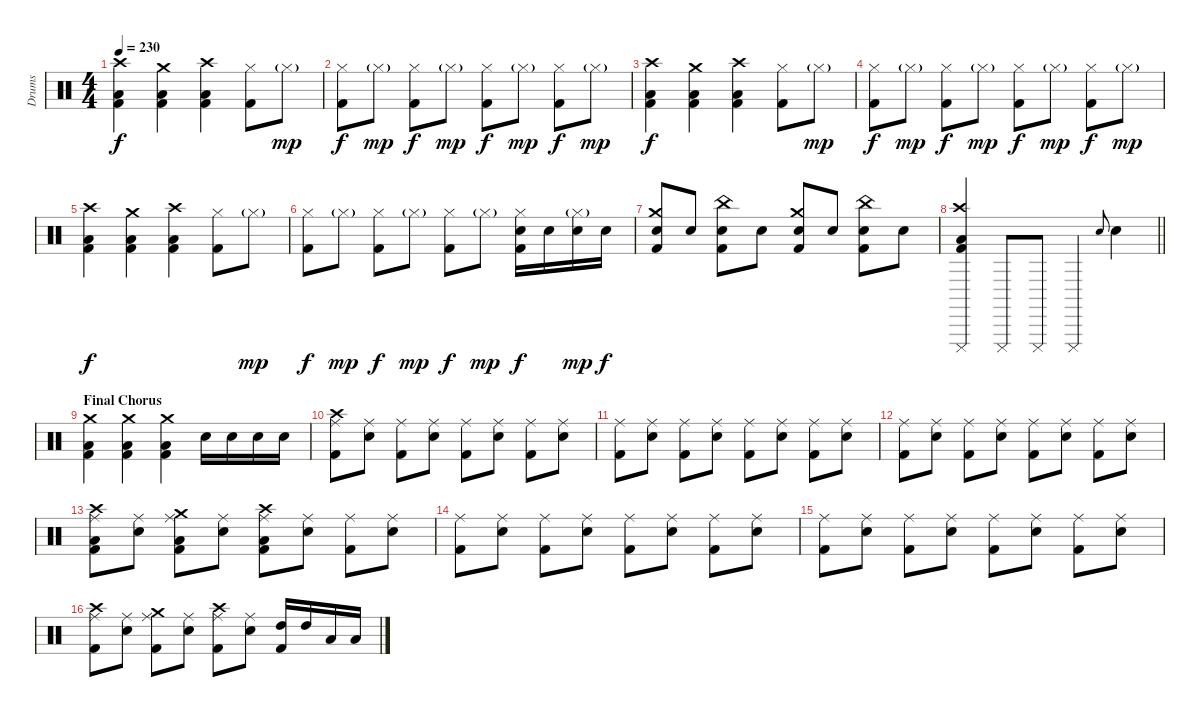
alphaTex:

\track ("Drums" "Drums") {instrument percussion}
\staff {score}
\articulation defaults
\ts (4 4)
\tempo 230
\clef neutral
\ks c
("Crash high (hit)" "Low Floor Tom (hit)" "Kick (hit) 2").4{dy f} ("Crash medium (hit)" "Low Floor Tom (hit)" "Kick (hit) 2").4 ("Crash high (hit)" "Low Floor Tom (hit)" "Kick (hit) 2").4 ("Hi-Hat (closed)" "Kick (hit) 2").8 "Hi-Hat (closed)"{g}.8{dy mp} |
("Hi-Hat (closed)" "Kick (hit) 2").8{dy f} "Hi-Hat (closed)"{g}.8{dy mp} ("Hi-Hat (closed)" "Kick (hit) 2").8{dy f} "Hi-Hat (closed)"{g}.8{dy mp} ("Hi-Hat (closed)" "Kick (hit) 2").8{dy f} "Hi-Hat (closed)"{g}.8{dy mp} ("Hi-Hat (closed)" "Kick (hit) 2").8{dy f} "Hi-Hat (closed)"{g}.8{dy mp} |
("Crash high (hit)" "Low Floor Tom (hit)" "Kick (hit) 2").4{dy f} ("Crash medium (hit)" "Low Floor Tom (hit)" "Kick (hit) 2").4 ("Crash high (hit)" "Low Floor Tom (hit)" "Kick (hit) 2").4 ("Hi-Hat (closed)" "Kick (hit) 2").8 "Hi-Hat (closed)"{g}.8{dy mp} |
("Hi-Hat (closed)" "Kick (hit) 2").8{dy f} "Hi-Hat (closed)"{g}.8{dy mp} ("Hi-Hat (closed)" "Kick (hit) 2").8{dy f} "Hi-Hat (closed)"{g}.8{dy mp} ("Hi-Hat (closed)" "Kick (hit) 2").8{dy f} "Hi-Hat (closed)"{g}.8{dy mp} ("Hi-Hat (closed)" "Kick (hit) 2").8{dy f} "Hi-Hat (closed)"{g}.8{dy mp} |
("Crash high (hit)" "Low Floor Tom (hit)" "Kick (hit) 2").4{dy f} ("Crash medium (hit)" "Low Floor Tom (hit)" "Kick (hit) 2").4 ("Crash high (hit)" "Low Floor Tom (hit)" "Kick (hit) 2").4 ("Hi-Hat (closed)" "Kick (hit) 2").8 "Hi-Hat (closed)"{g}.8{dy mp} |
("Hi-Hat (closed)" "Kick (hit) 2").8{dy f} "Hi-Hat (closed)"{g}.8{dy mp} ("Hi-Hat (closed)" "Kick (hit) 2").8{dy f} "Hi-Hat (closed)"{g}.8{dy mp} ("Hi-Hat (closed)" "Kick (hit) 2").8{dy f} "Hi-Hat (closed)"{g}.8{dy mp} ("Hi-Hat (closed)" "Snare (hit) 2" "Kick (hit) 2").16{dy f} "Snare (hit) 2".16 ("Hi-Hat (closed)"{g} "Snare (hit) 2").16{dy mp} "Snare (hit) 2".16{dy f} |
("Crash medium (hit)" "Snare (hit) 2" "Kick (hit) 2").8 "Snare (hit) 2".8 ("China (hit)" "Snare (hit) 2" "Kick (hit) 2").8 "Snare (hit) 2".8 ("Crash medium (hit)" "Snare (hit) 2" "Kick (hit) 2").8 "Snare (hit) 2".8 ("China (hit)" "Snare (hit) 2" "Kick (hit) 2").8 "Snare (hit) 2".8 |
\barLineRight lightlight
("Crash high (hit)" "Cuica (mute)" "Low Floor Tom (hit)" "Kick (hit) 2").4 "Cuica (mute)".8 "Cuica (mute)".8 "Cuica (mute)".4 "Snare (hit) 2".8{gr onbeat} "Snare (hit) 2".4 |
\section ("" "Final Chorus")
("Crash medium (hit)" "Low Floor Tom (hit)" "Kick (hit) 2").4 ("Crash medium (hit)" "Low Floor Tom (hit)" "Kick (hit) 2").4 ("Crash medium (hit)" "Low Floor Tom (hit)" "Kick (hit) 2").4 "Snare (hit) 2".16 "Snare (hit) 2".16 "Snare (hit) 2".16 "Snare (hit) 2".16 |
("Crash high (hit)" "Ride (middle)" "Kick (hit) 2").8 ("Ride (middle)" "Snare (hit) 2").8 ("Ride (middle)" "Kick (hit) 2").8 ("Ride (middle)" "Snare (hit) 2").8 ("Ride (middle)" "Kick (hit) 2").8 ("Ride (middle)" "Snare (hit) 2").8 ("Ride (middle)" "Kick (hit) 2").8 ("Ride (middle)" "Snare (hit) 2").8 |
("Ride (middle)" "Kick (hit) 2").8 ("Ride (middle)" "Snare (hit) 2").8 ("Ride (middle)" "Kick (hit) 2").8 ("Ride (middle)" "Snare (hit) 2").8 ("Ride (middle)" "Kick (hit) 2").8 ("Ride (middle)" "Snare (hit) 2").8 ("Ride (middle)" "Kick (hit) 2").8 ("Ride (middle)" "Snare (hit) 2").8 |
("Ride (middle)" "Kick (hit) 2").8 ("Ride (middle)" "Snare (hit) 2").8 ("Ride (middle)" "Kick (hit) 2").8 ("Ride (middle)" "Snare (hit) 2").8 ("Ride (middle)" "Kick (hit) 2").8 ("Ride (middle)" "Snare (hit) 2").8 ("Ride (middle)" "Kick (hit) 2").8 ("Ride (middle)" "Snare (hit) 2").8 |
("Crash high (hit)" "Ride (middle)" "Low Floor Tom (hit)" "Kick (hit) 2").8 ("Ride (middle)" "Snare (hit) 2").8 ("Crash medium (hit)" "Ride (middle)" "Low Floor Tom (hit)" "Kick (hit) 2").8 ("Ride (middle)" "Snare (hit) 2").8 ("Crash high (hit)" "Ride (middle)" "Low Floor Tom (hit)" "Kick (hit) 2").8 ("Ride (middle)" "Snare (hit) 2").8 ("Ride (middle)" "Kick (hit) 2").8 ("Ride (middle)" "Snare (hit) 2").8 |
("Ride (middle)" "Kick (hit) 2").8 ("Ride (middle)" "Snare (hit) 2").8 ("Ride (middle)" "Kick (hit) 2").8 ("Ride (middle)" "Snare (hit) 2").8 ("Ride (middle)" "Kick (hit) 2").8 ("Ride (middle)" "Snare (hit) 2").8 ("Ride (middle)" "Kick (hit) 2").8 ("Ride (middle)" "Snare (hit) 2").8 |
("Ride (middle)" "Kick (hit) 2").8 ("Ride (middle)" "Snare (hit) 2").8 ("Ride (middle)" "Kick (hit) 2").8 ("Ride (middle)" "Snare (hit) 2").8 ("Ride (middle)" "Kick (hit) 2").8 ("Ride (middle)" "Snare (hit) 2").8 ("Ride (middle)" "Kick (hit) 2").8 ("Ride (middle)" "Snare (hit) 2").8 |
("Crash high (hit)" "Ride (middle)" "Kick (hit) 2").8 ("Ride (middle)" "Snare (hit) 2").8 ("Crash medium (hit)" "Ride (middle)" "Kick (hit) 2").8 ("Ride (middle)" "Snare (hit) 2").8 ("Crash high (hit)" "Ride (middle)" "Kick (hit) 2").8 ("Ride (middle)" "Snare (hit) 2").8 ("High Tom (hit)" "Kick (hit) 2").16 "High Tom (hit)".16 "Low Tom (hit)".16 "Low Tom (hit)".16
